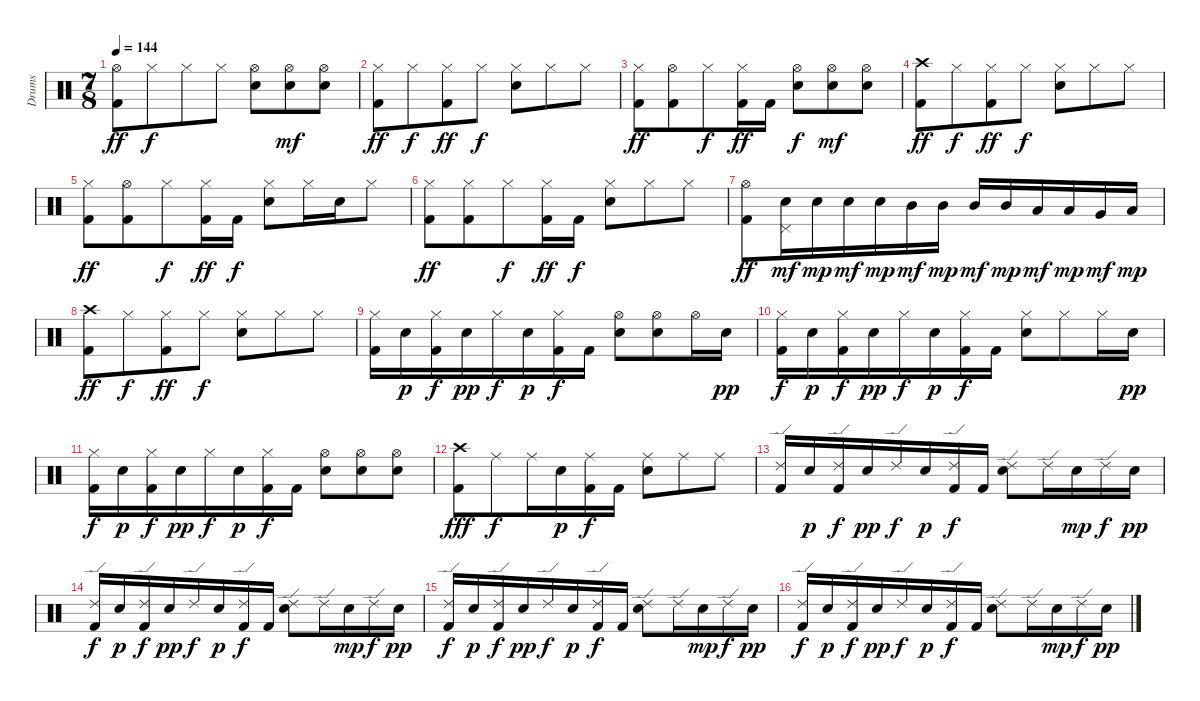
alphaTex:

\track ("Drums" "Drums") {instrument percussion}
\staff {score}
\articulation defaults
\ts (7 8)
\tempo 144
\clef neutral
\ks c
("Hi-Hat (open)" "Kick (hit) 2").8{dy ff} "Hi-Hat (closed)".8{dy f} "Hi-Hat (closed)".8 "Hi-Hat (closed)".8 ("Hi-Hat (open)" "Snare (hit) 2").8 ("Hi-Hat (open)" "Snare (hit) 2").8{dy mf} ("Hi-Hat (open)" "Snare (hit) 2").8 |
("Hi-Hat (closed)" "Kick (hit) 2").8{dy ff} "Hi-Hat (closed)".8{dy f} ("Hi-Hat (closed)" "Kick (hit) 2").8{dy ff} "Hi-Hat (closed)".8{dy f} ("Hi-Hat (closed)" "Snare (hit) 2").8 "Hi-Hat (closed)".8 "Hi-Hat (closed)".8 |
("Hi-Hat (closed)" "Kick (hit) 2").8{dy ff} ("Hi-Hat (open)" "Kick (hit) 2").8 "Hi-Hat (closed)".8{dy f} ("Hi-Hat (closed)" "Kick (hit) 2").16{dy ff} "Kick (hit) 2".16 ("Hi-Hat (open)" "Snare (hit) 2").8{dy f} ("Hi-Hat (open)" "Snare (hit) 2").8{dy mf} ("Hi-Hat (open)" "Snare (hit) 2").8 |
("Crash high (hit)" "Kick (hit) 2").8{dy ff} "Hi-Hat (closed)".8{dy f} ("Hi-Hat (closed)" "Kick (hit) 2").8{dy ff} "Hi-Hat (closed)".8{dy f} ("Hi-Hat (closed)" "Snare (hit) 2").8 "Hi-Hat (closed)".8 "Hi-Hat (closed)".8 |
("Hi-Hat (closed)" "Kick (hit) 2").8{dy ff} ("Hi-Hat (open)" "Kick (hit) 2").8 "Hi-Hat (closed)".8{dy f} ("Hi-Hat (closed)" "Kick (hit) 2").16{dy ff} "Kick (hit) 2".16{dy f} ("Hi-Hat (closed)" "Snare (hit) 2").8 "Hi-Hat (closed)".16 "Snare (hit) 2".16 "Hi-Hat (closed)".8 |
("Hi-Hat (closed)" "Kick (hit) 2").8{dy ff} ("Hi-Hat (closed)" "Kick (hit) 2").8 "Hi-Hat (closed)".8{dy f} ("Hi-Hat (closed)" "Kick (hit) 2").16{dy ff} "Kick (hit) 2".16{dy f} ("Hi-Hat (closed)" "Snare (hit) 2").8 "Hi-Hat (closed)".8 "Hi-Hat (closed)".8 |
("Hi-Hat (open)" "Kick (hit) 2").8{dy ff} ("Pedal Hi-Hat (hit)" "Snare (hit) 2").16{dy mf} "Snare (hit) 2".16{dy mp} "Snare (hit) 2".16{dy mf} "Snare (hit) 2".16{dy mp} "Mid Tom (hit)".16{dy mf} "Mid Tom (hit)".16{dy mp} "Mid Tom (hit)".16{dy mf} "Mid Tom (hit)".16{dy mp} "Low Tom (hit)".16{dy mf} "Low Tom (hit)".16{dy mp} "Very Low Tom (hit)".16{dy mf} "Low Floor Tom (hit)".16{dy mp} |
("Crash high (hit)" "Kick (hit) 2").8{dy ff} "Hi-Hat (closed)".8{dy f} ("Hi-Hat (closed)" "Kick (hit) 2").8{dy ff} "Hi-Hat (closed)".8{dy f} ("Hi-Hat (closed)" "Snare (hit) 2").8 "Hi-Hat (closed)".8 "Hi-Hat (closed)".8 |
("Hi-Hat (closed)" "Kick (hit) 2").16 "Snare (hit) 2".16{dy p} ("Hi-Hat (closed)" "Kick (hit) 2").16{dy f} "Snare (hit) 2".16{dy pp} "Hi-Hat (closed)".16{dy f} "Snare (hit) 2".16{dy p} ("Hi-Hat (closed)" "Kick (hit) 2").16{dy f} "Kick (hit) 2".16 ("Hi-Hat (open)" "Snare (hit) 2").8 ("Hi-Hat (open)" "Snare (hit) 2").8 "Hi-Hat (open)".16 "Snare (hit) 2".16{dy pp} |
("Hi-Hat (closed)" "Kick (hit) 2").16{dy f} "Snare (hit) 2".16{dy p} ("Hi-Hat (closed)" "Kick (hit) 2").16{dy f} "Snare (hit) 2".16{dy pp} "Hi-Hat (closed)".16{dy f} "Snare (hit) 2".16{dy p} ("Hi-Hat (closed)" "Kick (hit) 2").16{dy f} "Kick (hit) 2".16 ("Hi-Hat (closed)" "Snare (hit) 2").8 "Hi-Hat (closed)".8 "Hi-Hat (closed)".16 "Snare (hit) 2".16{dy pp} |
("Hi-Hat (closed)" "Kick (hit) 2").16{dy f} "Snare (hit) 2".16{dy p} ("Hi-Hat (closed)" "Kick (hit) 2").16{dy f} "Snare (hit) 2".16{dy pp} "Hi-Hat (closed)".16{dy f} "Snare (hit) 2".16{dy p} ("Hi-Hat (closed)" "Kick (hit) 2").16{dy f} "Kick (hit) 2".16 ("Hi-Hat (open)" "Snare (hit) 2").8 ("Hi-Hat (open)" "Snare (hit) 2").8 ("Hi-Hat (open)" "Snare (hit) 2").8 |
("Crash high (hit)" "Kick (hit) 2").8{dy fff} "Ride (middle)".8{dy f} "Ride (middle)".16 "Snare (hit) 2".16{dy p} ("Ride (middle)" "Kick (hit) 2").16{dy f} "Kick (hit) 2".16 ("Ride (middle)" "Snare (hit) 2").8 "Ride (middle)".8 "Ride (middle)".8 |
("Ride (edge) 2" "Kick (hit) 2").16 "Snare (hit) 2".16{dy p} ("Ride (edge) 2" "Kick (hit) 2").16{dy f} "Snare (hit) 2".16{dy pp} "Ride (edge) 2".16{dy f} "Snare (hit) 2".16{dy p} ("Ride (edge) 2" "Kick (hit) 2").16{dy f} "Kick (hit) 2".16 ("Ride (edge) 2" "Snare (hit) 2").8 "Ride (edge) 2".16 "Snare (hit) 2".16{dy mp} "Ride (edge) 2".16{dy f} "Snare (hit) 2".16{dy pp} |
("Ride (edge) 2" "Kick (hit) 2").16{dy f} "Snare (hit) 2".16{dy p} ("Ride (edge) 2" "Kick (hit) 2").16{dy f} "Snare (hit) 2".16{dy pp} "Ride (edge) 2".16{dy f} "Snare (hit) 2".16{dy p} ("Ride (edge) 2" "Kick (hit) 2").16{dy f} "Kick (hit) 2".16 ("Ride (edge) 2" "Snare (hit) 2").8 "Ride (edge) 2".16 "Snare (hit) 2".16{dy mp} "Ride (edge) 2".16{dy f} "Snare (hit) 2".16{dy pp} |
("Ride (edge) 2" "Kick (hit) 2").16{dy f} "Snare (hit) 2".16{dy p} ("Ride (edge) 2" "Kick (hit) 2").16{dy f} "Snare (hit) 2".16{dy pp} "Ride (edge) 2".16{dy f} "Snare (hit) 2".16{dy p} ("Ride (edge) 2" "Kick (hit) 2").16{dy f} "Kick (hit) 2".16 ("Ride (edge) 2" "Snare (hit) 2").8 "Ride (edge) 2".16 "Snare (hit) 2".16{dy mp} "Ride (edge) 2".16{dy f} "Snare (hit) 2".16{dy pp} |
("Ride (edge) 2" "Kick (hit) 2").16{dy f} "Snare (hit) 2".16{dy p} ("Ride (edge) 2" "Kick (hit) 2").16{dy f} "Snare (hit) 2".16{dy pp} "Ride (edge) 2".16{dy f} "Snare (hit) 2".16{dy p} ("Ride (edge) 2" "Kick (hit) 2").16{dy f} "Kick (hit) 2".16 ("Ride (edge) 2" "Snare (hit) 2").8 "Ride (edge) 2".16 "Snare (hit) 2".16{dy mp} "Ride (edge) 2".16{dy f} "Snare (hit) 2".16{dy pp}
